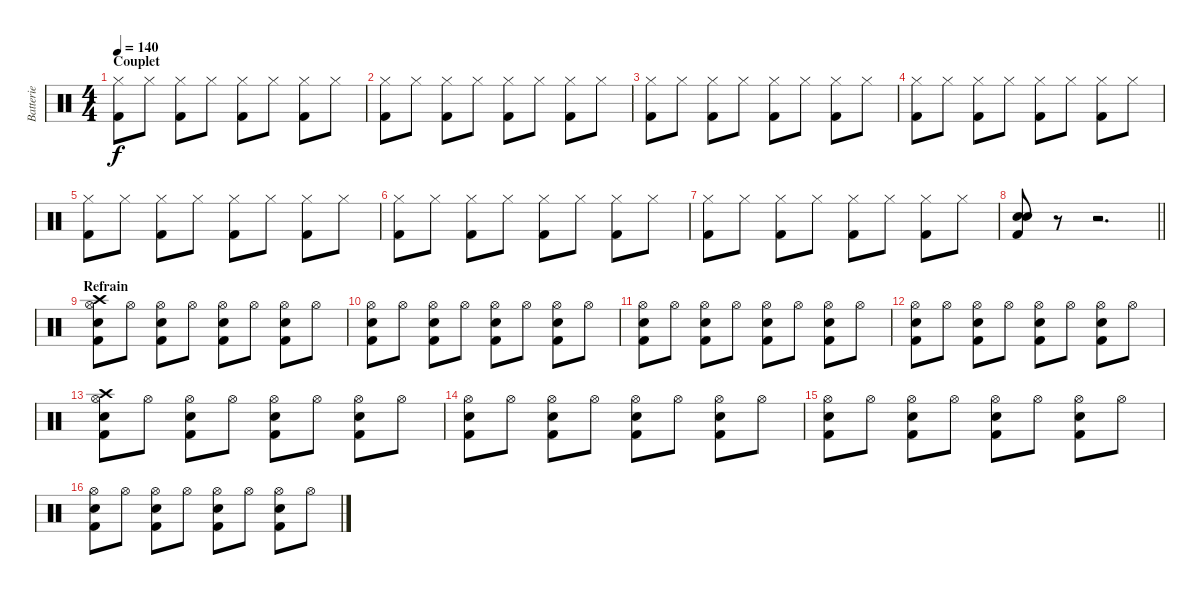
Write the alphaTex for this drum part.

\track ("Batterie" "Batterie") {instrument percussion}
\staff {score}
\articulation defaults
\ts (4 4)
\section ("" "Couplet")
\tempo 140
\clef neutral
\ks c
("Hi-Hat (closed)" "Kick (hit) 2").8{dy f} "Hi-Hat (closed)".8 ("Hi-Hat (closed)" "Kick (hit) 2").8 "Hi-Hat (closed)".8 ("Hi-Hat (closed)" "Kick (hit) 2").8 "Hi-Hat (closed)".8 ("Hi-Hat (closed)" "Kick (hit) 2").8 "Hi-Hat (closed)".8 |
("Hi-Hat (closed)" "Kick (hit) 2").8 "Hi-Hat (closed)".8 ("Hi-Hat (closed)" "Kick (hit) 2").8 "Hi-Hat (closed)".8 ("Hi-Hat (closed)" "Kick (hit) 2").8 "Hi-Hat (closed)".8 ("Hi-Hat (closed)" "Kick (hit) 2").8 "Hi-Hat (closed)".8 |
("Hi-Hat (closed)" "Kick (hit) 2").8 "Hi-Hat (closed)".8 ("Hi-Hat (closed)" "Kick (hit) 2").8 "Hi-Hat (closed)".8 ("Hi-Hat (closed)" "Kick (hit) 2").8 "Hi-Hat (closed)".8 ("Hi-Hat (closed)" "Kick (hit) 2").8 "Hi-Hat (closed)".8 |
("Hi-Hat (closed)" "Kick (hit) 2").8 "Hi-Hat (closed)".8 ("Hi-Hat (closed)" "Kick (hit) 2").8 "Hi-Hat (closed)".8 ("Hi-Hat (closed)" "Kick (hit) 2").8 "Hi-Hat (closed)".8 ("Hi-Hat (closed)" "Kick (hit) 2").8 "Hi-Hat (closed)".8 |
("Hi-Hat (closed)" "Kick (hit) 2").8 "Hi-Hat (closed)".8 ("Hi-Hat (closed)" "Kick (hit) 2").8 "Hi-Hat (closed)".8 ("Hi-Hat (closed)" "Kick (hit) 2").8 "Hi-Hat (closed)".8 ("Hi-Hat (closed)" "Kick (hit) 2").8 "Hi-Hat (closed)".8 |
("Hi-Hat (closed)" "Kick (hit) 2").8 "Hi-Hat (closed)".8 ("Hi-Hat (closed)" "Kick (hit) 2").8 "Hi-Hat (closed)".8 ("Hi-Hat (closed)" "Kick (hit) 2").8 "Hi-Hat (closed)".8 ("Hi-Hat (closed)" "Kick (hit) 2").8 "Hi-Hat (closed)".8 |
("Hi-Hat (closed)" "Kick (hit) 2").8 "Hi-Hat (closed)".8 ("Hi-Hat (closed)" "Kick (hit) 2").8 "Hi-Hat (closed)".8 ("Hi-Hat (closed)" "Kick (hit) 2").8 "Hi-Hat (closed)".8 ("Hi-Hat (closed)" "Kick (hit) 2").8 "Hi-Hat (closed)".8 |
\barLineRight lightlight
("Electric Snare (hit)" "Snare (hit) 2" "Kick (hit) 2").8 r.8 r.2{d} |
\section ("" "Refrain")
("Crash high (hit)" "Hi-Hat (open)" "Electric Snare (hit)" "Kick (hit) 2").8 "Hi-Hat (open)".8 ("Hi-Hat (open)" "Electric Snare (hit)" "Kick (hit) 2").8 "Hi-Hat (open)".8 ("Hi-Hat (open)" "Electric Snare (hit)" "Kick (hit) 2").8 "Hi-Hat (open)".8 ("Hi-Hat (open)" "Electric Snare (hit)" "Kick (hit) 2").8 "Hi-Hat (open)".8 |
("Hi-Hat (open)" "Electric Snare (hit)" "Kick (hit) 2").8 "Hi-Hat (open)".8 ("Hi-Hat (open)" "Electric Snare (hit)" "Kick (hit) 2").8 "Hi-Hat (open)".8 ("Hi-Hat (open)" "Electric Snare (hit)" "Kick (hit) 2").8 "Hi-Hat (open)".8 ("Hi-Hat (open)" "Electric Snare (hit)" "Kick (hit) 2").8 "Hi-Hat (open)".8 |
("Hi-Hat (open)" "Electric Snare (hit)" "Kick (hit) 2").8 "Hi-Hat (open)".8 ("Hi-Hat (open)" "Electric Snare (hit)" "Kick (hit) 2").8 "Hi-Hat (open)".8 ("Hi-Hat (open)" "Electric Snare (hit)" "Kick (hit) 2").8 "Hi-Hat (open)".8 ("Hi-Hat (open)" "Electric Snare (hit)" "Kick (hit) 2").8 "Hi-Hat (open)".8 |
("Hi-Hat (open)" "Electric Snare (hit)" "Kick (hit) 2").8 "Hi-Hat (open)".8 ("Hi-Hat (open)" "Electric Snare (hit)" "Kick (hit) 2").8 "Hi-Hat (open)".8 ("Hi-Hat (open)" "Electric Snare (hit)" "Kick (hit) 2").8 "Hi-Hat (open)".8 ("Hi-Hat (open)" "Electric Snare (hit)" "Kick (hit) 2").8 "Hi-Hat (open)".8 |
("Crash high (hit)" "Hi-Hat (open)" "Electric Snare (hit)" "Kick (hit) 2").8 "Hi-Hat (open)".8 ("Hi-Hat (open)" "Electric Snare (hit)" "Kick (hit) 2").8 "Hi-Hat (open)".8 ("Hi-Hat (open)" "Electric Snare (hit)" "Kick (hit) 2").8 "Hi-Hat (open)".8 ("Hi-Hat (open)" "Electric Snare (hit)" "Kick (hit) 2").8 "Hi-Hat (open)".8 |
("Hi-Hat (open)" "Electric Snare (hit)" "Kick (hit) 2").8 "Hi-Hat (open)".8 ("Hi-Hat (open)" "Electric Snare (hit)" "Kick (hit) 2").8 "Hi-Hat (open)".8 ("Hi-Hat (open)" "Electric Snare (hit)" "Kick (hit) 2").8 "Hi-Hat (open)".8 ("Hi-Hat (open)" "Electric Snare (hit)" "Kick (hit) 2").8 "Hi-Hat (open)".8 |
("Hi-Hat (open)" "Electric Snare (hit)" "Kick (hit) 2").8 "Hi-Hat (open)".8 ("Hi-Hat (open)" "Electric Snare (hit)" "Kick (hit) 2").8 "Hi-Hat (open)".8 ("Hi-Hat (open)" "Electric Snare (hit)" "Kick (hit) 2").8 "Hi-Hat (open)".8 ("Hi-Hat (open)" "Electric Snare (hit)" "Kick (hit) 2").8 "Hi-Hat (open)".8 |
("Hi-Hat (open)" "Electric Snare (hit)" "Kick (hit) 2").8 "Hi-Hat (open)".8 ("Hi-Hat (open)" "Electric Snare (hit)" "Kick (hit) 2").8 "Hi-Hat (open)".8 ("Hi-Hat (open)" "Electric Snare (hit)" "Kick (hit) 2").8 "Hi-Hat (open)".8 ("Hi-Hat (open)" "Electric Snare (hit)" "Kick (hit) 2").8 "Hi-Hat (open)".8
